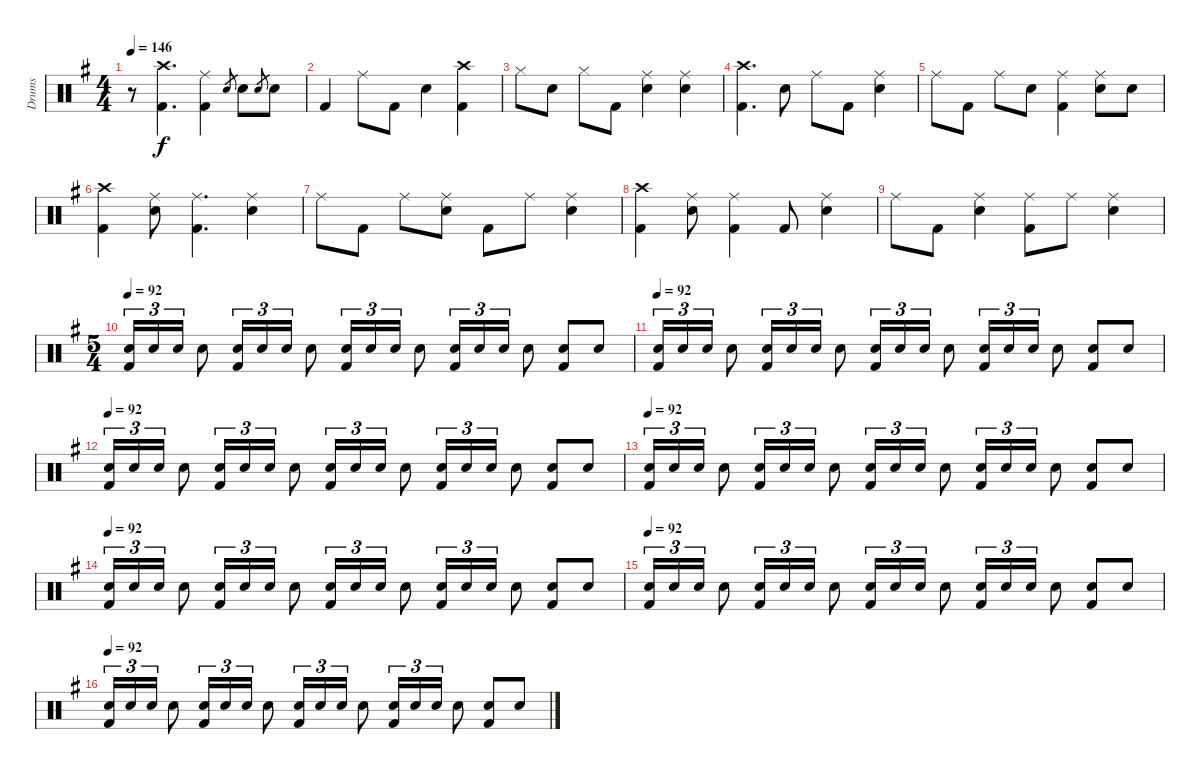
\track ("Drums" "Drums") {instrument percussion}
\staff {score}
\articulation defaults
\ts (4 4)
\tempo 146
\clef neutral
\ks g
r.8{dy f} ("Kick (hit) 2" "Crash high (hit)").4{d} ("Kick (hit) 2" "Ride (middle)").4 "Snare (hit) 2".8{gr} "Snare (hit) 2".8 "Snare (hit) 2".8{gr} "Snare (hit) 2".8 |
"Kick (hit) 2".4 "Ride (middle)".8 "Kick (hit) 2".8 "Snare (hit) 2".4 ("Kick (hit) 2" "Crash high (hit)").4 |
"Hi-Hat (closed)".8 "Snare (hit) 2".8 "Hi-Hat (closed)".8 "Kick (hit) 2".8 ("Snare (hit) 2" "Ride (middle)").4 ("Snare (hit) 2" "Ride (middle)").4 |
("Kick (hit) 2" "Crash high (hit)").4{d} "Snare (hit) 2".8 "Ride (middle)".8 "Kick (hit) 2".8 ("Snare (hit) 2" "Ride (middle)").4 |
"Ride (middle)".8 "Kick (hit) 2".8 "Ride (middle)".8 "Snare (hit) 2".8 ("Kick (hit) 2" "Ride (middle)").4 ("Snare (hit) 2" "Ride (middle)").8 "Snare (hit) 2".8 |
("Kick (hit) 2" "Crash high (hit)").4 ("Snare (hit) 2" "Ride (middle)").8 ("Kick (hit) 2" "Ride (middle)").4{d} ("Snare (hit) 2" "Ride (middle)").4 |
"Ride (middle)".8 "Kick (hit) 2".8 "Ride (middle)".8 ("Snare (hit) 2" "Ride (middle)").8 "Kick (hit) 2".8 "Ride (middle)".8 ("Snare (hit) 2" "Ride (middle)").4 |
("Kick (hit) 2" "Crash high (hit)").4 ("Snare (hit) 2" "Ride (middle)").8 ("Kick (hit) 2" "Ride (middle)").4 "Kick (hit) 2".8 ("Snare (hit) 2" "Ride (middle)").4 |
"Ride (middle)".8 "Kick (hit) 2".8 ("Snare (hit) 2" "Ride (middle)").4 ("Kick (hit) 2" "Ride (middle)").8 "Ride (middle)".8 ("Snare (hit) 2" "Ride (middle)").4 |
\ts (5 4)
\tempo 92
("Kick (hit) 2" "Snare (hit) 2").16{tu (3 2)} "Snare (hit) 2".16{tu (3 2)} "Snare (hit) 2".16{tu (3 2)} "Snare (hit) 2".8 ("Kick (hit) 2" "Snare (hit) 2").16{tu (3 2)} "Snare (hit) 2".16{tu (3 2)} "Snare (hit) 2".16{tu (3 2)} "Snare (hit) 2".8 ("Kick (hit) 2" "Snare (hit) 2").16{tu (3 2)} "Snare (hit) 2".16{tu (3 2)} "Snare (hit) 2".16{tu (3 2)} "Snare (hit) 2".8 ("Kick (hit) 2" "Snare (hit) 2").16{tu (3 2)} "Snare (hit) 2".16{tu (3 2)} "Snare (hit) 2".16{tu (3 2)} "Snare (hit) 2".8 ("Kick (hit) 2" "Snare (hit) 2").8 "Snare (hit) 2".8 |
\tempo 92
("Kick (hit) 2" "Snare (hit) 2").16{tu (3 2)} "Snare (hit) 2".16{tu (3 2)} "Snare (hit) 2".16{tu (3 2)} "Snare (hit) 2".8 ("Kick (hit) 2" "Snare (hit) 2").16{tu (3 2)} "Snare (hit) 2".16{tu (3 2)} "Snare (hit) 2".16{tu (3 2)} "Snare (hit) 2".8 ("Kick (hit) 2" "Snare (hit) 2").16{tu (3 2)} "Snare (hit) 2".16{tu (3 2)} "Snare (hit) 2".16{tu (3 2)} "Snare (hit) 2".8 ("Kick (hit) 2" "Snare (hit) 2").16{tu (3 2)} "Snare (hit) 2".16{tu (3 2)} "Snare (hit) 2".16{tu (3 2)} "Snare (hit) 2".8 ("Kick (hit) 2" "Snare (hit) 2").8 "Snare (hit) 2".8 |
\tempo 92
("Kick (hit) 2" "Snare (hit) 2").16{tu (3 2)} "Snare (hit) 2".16{tu (3 2)} "Snare (hit) 2".16{tu (3 2)} "Snare (hit) 2".8 ("Kick (hit) 2" "Snare (hit) 2").16{tu (3 2)} "Snare (hit) 2".16{tu (3 2)} "Snare (hit) 2".16{tu (3 2)} "Snare (hit) 2".8 ("Kick (hit) 2" "Snare (hit) 2").16{tu (3 2)} "Snare (hit) 2".16{tu (3 2)} "Snare (hit) 2".16{tu (3 2)} "Snare (hit) 2".8 ("Kick (hit) 2" "Snare (hit) 2").16{tu (3 2)} "Snare (hit) 2".16{tu (3 2)} "Snare (hit) 2".16{tu (3 2)} "Snare (hit) 2".8 ("Kick (hit) 2" "Snare (hit) 2").8 "Snare (hit) 2".8 |
\tempo 92
("Kick (hit) 2" "Snare (hit) 2").16{tu (3 2)} "Snare (hit) 2".16{tu (3 2)} "Snare (hit) 2".16{tu (3 2)} "Snare (hit) 2".8 ("Kick (hit) 2" "Snare (hit) 2").16{tu (3 2)} "Snare (hit) 2".16{tu (3 2)} "Snare (hit) 2".16{tu (3 2)} "Snare (hit) 2".8 ("Kick (hit) 2" "Snare (hit) 2").16{tu (3 2)} "Snare (hit) 2".16{tu (3 2)} "Snare (hit) 2".16{tu (3 2)} "Snare (hit) 2".8 ("Kick (hit) 2" "Snare (hit) 2").16{tu (3 2)} "Snare (hit) 2".16{tu (3 2)} "Snare (hit) 2".16{tu (3 2)} "Snare (hit) 2".8 ("Kick (hit) 2" "Snare (hit) 2").8 "Snare (hit) 2".8 |
\tempo 92
("Kick (hit) 2" "Snare (hit) 2").16{tu (3 2)} "Snare (hit) 2".16{tu (3 2)} "Snare (hit) 2".16{tu (3 2)} "Snare (hit) 2".8 ("Kick (hit) 2" "Snare (hit) 2").16{tu (3 2)} "Snare (hit) 2".16{tu (3 2)} "Snare (hit) 2".16{tu (3 2)} "Snare (hit) 2".8 ("Kick (hit) 2" "Snare (hit) 2").16{tu (3 2)} "Snare (hit) 2".16{tu (3 2)} "Snare (hit) 2".16{tu (3 2)} "Snare (hit) 2".8 ("Kick (hit) 2" "Snare (hit) 2").16{tu (3 2)} "Snare (hit) 2".16{tu (3 2)} "Snare (hit) 2".16{tu (3 2)} "Snare (hit) 2".8 ("Kick (hit) 2" "Snare (hit) 2").8 "Snare (hit) 2".8 |
\tempo 92
("Kick (hit) 2" "Snare (hit) 2").16{tu (3 2)} "Snare (hit) 2".16{tu (3 2)} "Snare (hit) 2".16{tu (3 2)} "Snare (hit) 2".8 ("Kick (hit) 2" "Snare (hit) 2").16{tu (3 2)} "Snare (hit) 2".16{tu (3 2)} "Snare (hit) 2".16{tu (3 2)} "Snare (hit) 2".8 ("Kick (hit) 2" "Snare (hit) 2").16{tu (3 2)} "Snare (hit) 2".16{tu (3 2)} "Snare (hit) 2".16{tu (3 2)} "Snare (hit) 2".8 ("Kick (hit) 2" "Snare (hit) 2").16{tu (3 2)} "Snare (hit) 2".16{tu (3 2)} "Snare (hit) 2".16{tu (3 2)} "Snare (hit) 2".8 ("Kick (hit) 2" "Snare (hit) 2").8 "Snare (hit) 2".8 |
\tempo 92
("Kick (hit) 2" "Snare (hit) 2").16{tu (3 2)} "Snare (hit) 2".16{tu (3 2)} "Snare (hit) 2".16{tu (3 2)} "Snare (hit) 2".8 ("Kick (hit) 2" "Snare (hit) 2").16{tu (3 2)} "Snare (hit) 2".16{tu (3 2)} "Snare (hit) 2".16{tu (3 2)} "Snare (hit) 2".8 ("Kick (hit) 2" "Snare (hit) 2").16{tu (3 2)} "Snare (hit) 2".16{tu (3 2)} "Snare (hit) 2".16{tu (3 2)} "Snare (hit) 2".8 ("Kick (hit) 2" "Snare (hit) 2").16{tu (3 2)} "Snare (hit) 2".16{tu (3 2)} "Snare (hit) 2".16{tu (3 2)} "Snare (hit) 2".8 ("Kick (hit) 2" "Snare (hit) 2").8 "Snare (hit) 2".8
